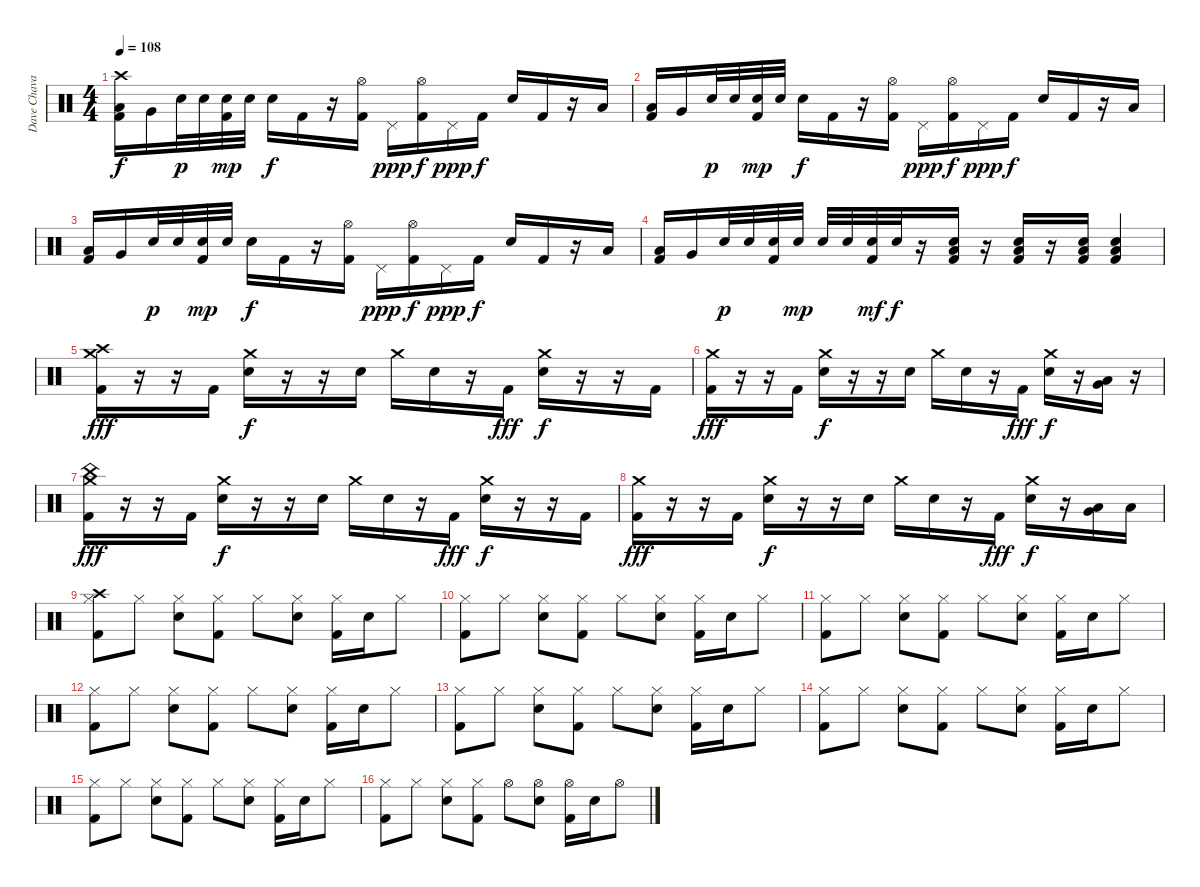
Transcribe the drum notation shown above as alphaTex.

\track ("Dave Chavarri [Drums]" "Dave Chava") {instrument percussion}
\staff {score}
\articulation defaults
\ts (4 4)
\tempo 108
\clef neutral
\ks c
("Crash high (hit)" "Low Tom (hit)" "Kick (hit) 2").16{dy f} "Very Low Tom (hit)".16 "Electric Snare (hit)".32{dy p} "Electric Snare (hit)".32 ("Electric Snare (hit)" "Kick (hit) 2").32{dy mp} "Electric Snare (hit)".32 "Electric Snare (hit)".16{dy f} "Kick (hit) 2".16 r.16 ("Hi-Hat (open)" "Kick (hit) 2").16 "Pedal Hi-Hat (hit)".16{dy ppp} ("Hi-Hat (open)" "Kick (hit) 2").16{dy f} "Pedal Hi-Hat (hit)".16{dy ppp} "Kick (hit) 2".16{dy f} "Electric Snare (hit)".16 "Kick (hit) 2".16 r.16 "Low Floor Tom (hit)".16 |
("Low Tom (hit)" "Kick (hit) 2").16 "Very Low Tom (hit)".16 "Electric Snare (hit)".32{dy p} "Electric Snare (hit)".32 ("Electric Snare (hit)" "Kick (hit) 2").32{dy mp} "Electric Snare (hit)".32 "Electric Snare (hit)".16{dy f} "Kick (hit) 2".16 r.16 ("Hi-Hat (open)" "Kick (hit) 2").16 "Pedal Hi-Hat (hit)".16{dy ppp} ("Hi-Hat (open)" "Kick (hit) 2").16{dy f} "Pedal Hi-Hat (hit)".16{dy ppp} "Kick (hit) 2".16{dy f} "Electric Snare (hit)".16 "Kick (hit) 2".16 r.16 "Low Floor Tom (hit)".16 |
("Low Tom (hit)" "Kick (hit) 2").16 "Very Low Tom (hit)".16 "Electric Snare (hit)".32{dy p} "Electric Snare (hit)".32 ("Electric Snare (hit)" "Kick (hit) 2").32{dy mp} "Electric Snare (hit)".32 "Electric Snare (hit)".16{dy f} "Kick (hit) 2".16 r.16 ("Hi-Hat (open)" "Kick (hit) 2").16 "Pedal Hi-Hat (hit)".16{dy ppp} ("Hi-Hat (open)" "Kick (hit) 2").16{dy f} "Pedal Hi-Hat (hit)".16{dy ppp} "Kick (hit) 2".16{dy f} "Electric Snare (hit)".16 "Kick (hit) 2".16 r.16 "Low Floor Tom (hit)".16 |
("Low Tom (hit)" "Kick (hit) 2").16 "Very Low Tom (hit)".16 "Electric Snare (hit)".32{dy p} "Electric Snare (hit)".32 ("Electric Snare (hit)" "Kick (hit) 2").32 "Electric Snare (hit)".32{dy mp} "Electric Snare (hit)".32 "Electric Snare (hit)".32 ("Electric Snare (hit)" "Kick (hit) 2").32{dy mf} "Electric Snare (hit)".32{dy f} r.16 ("Low Floor Tom (hit)" "Electric Snare (hit)" "Kick (hit) 2").16 r.16 ("Low Floor Tom (hit)" "Electric Snare (hit)" "Kick (hit) 2").16 r.16 ("Low Floor Tom (hit)" "Electric Snare (hit)" "Kick (hit) 2").16 ("Low Floor Tom (hit)" "Electric Snare (hit)" "Kick (hit) 2").4 |
("Crash medium (hit)" "Crash high (hit)" "Kick (hit) 2").16{dy fff} r.16 r.16 "Kick (hit) 2".16 ("Crash medium (hit)" "Electric Snare (hit)").16{dy f} r.16 r.16 "Electric Snare (hit)".16 "Crash medium (hit)".16 "Electric Snare (hit)".16 r.16 "Kick (hit) 2".16{dy fff} ("Crash medium (hit)" "Electric Snare (hit)").16{dy f} r.16 r.16 "Kick (hit) 2".16 |
("Crash medium (hit)" "Kick (hit) 2").16{dy fff} r.16 r.16 "Kick (hit) 2".16 ("Crash medium (hit)" "Electric Snare (hit)").16{dy f} r.16 r.16 "Electric Snare (hit)".16 "Crash medium (hit)".16 "Electric Snare (hit)".16 r.16 "Kick (hit) 2".16{dy fff} ("Crash medium (hit)" "Electric Snare (hit)").16{dy f} r.16 ("Low Tom (hit)" "Very Low Tom (hit)").16 r.16 |
("Crash medium (hit)" "China (hit)" "Kick (hit) 2").16{dy fff} r.16 r.16 "Kick (hit) 2".16 ("Crash medium (hit)" "Electric Snare (hit)").16{dy f} r.16 r.16 "Electric Snare (hit)".16 "Crash medium (hit)".16 "Electric Snare (hit)".16 r.16 "Kick (hit) 2".16{dy fff} ("Crash medium (hit)" "Electric Snare (hit)").16{dy f} r.16 r.16 "Kick (hit) 2".16 |
("Crash medium (hit)" "Kick (hit) 2").16{dy fff} r.16 r.16 "Kick (hit) 2".16 ("Crash medium (hit)" "Electric Snare (hit)").16{dy f} r.16 r.16 "Electric Snare (hit)".16 "Crash medium (hit)".16 "Electric Snare (hit)".16 r.16 "Kick (hit) 2".16{dy fff} ("Crash medium (hit)" "Electric Snare (hit)").16{dy f} r.16 ("Low Tom (hit)" "Very Low Tom (hit)").16 "Low Floor Tom (hit)".16 |
("Crash high (hit)" "Hi-Hat (closed)" "Kick (hit) 2").8 "Hi-Hat (closed)".8 ("Hi-Hat (closed)" "Electric Snare (hit)").8 ("Hi-Hat (closed)" "Kick (hit) 2").8 "Hi-Hat (closed)".8 ("Hi-Hat (closed)" "Electric Snare (hit)").8 ("Hi-Hat (closed)" "Kick (hit) 2").16 "Electric Snare (hit)".16 "Hi-Hat (closed)".8 |
("Hi-Hat (closed)" "Kick (hit) 2").8 "Hi-Hat (closed)".8 ("Hi-Hat (closed)" "Electric Snare (hit)").8 ("Hi-Hat (closed)" "Kick (hit) 2").8 "Hi-Hat (closed)".8 ("Hi-Hat (closed)" "Electric Snare (hit)").8 ("Hi-Hat (closed)" "Kick (hit) 2").16 "Electric Snare (hit)".16 "Hi-Hat (closed)".8 |
("Hi-Hat (closed)" "Kick (hit) 2").8 "Hi-Hat (closed)".8 ("Hi-Hat (closed)" "Electric Snare (hit)").8 ("Hi-Hat (closed)" "Kick (hit) 2").8 "Hi-Hat (closed)".8 ("Hi-Hat (closed)" "Electric Snare (hit)").8 ("Hi-Hat (closed)" "Kick (hit) 2").16 "Electric Snare (hit)".16 "Hi-Hat (closed)".8 |
("Hi-Hat (closed)" "Kick (hit) 2").8 "Hi-Hat (closed)".8 ("Hi-Hat (closed)" "Electric Snare (hit)").8 ("Hi-Hat (closed)" "Kick (hit) 2").8 "Hi-Hat (closed)".8 ("Hi-Hat (closed)" "Electric Snare (hit)").8 ("Hi-Hat (closed)" "Kick (hit) 2").16 "Electric Snare (hit)".16 "Hi-Hat (closed)".8 |
("Hi-Hat (closed)" "Kick (hit) 2").8 "Hi-Hat (closed)".8 ("Hi-Hat (closed)" "Electric Snare (hit)").8 ("Hi-Hat (closed)" "Kick (hit) 2").8 "Hi-Hat (closed)".8 ("Hi-Hat (closed)" "Electric Snare (hit)").8 ("Hi-Hat (closed)" "Kick (hit) 2").16 "Electric Snare (hit)".16 "Hi-Hat (closed)".8 |
("Hi-Hat (closed)" "Kick (hit) 2").8 "Hi-Hat (closed)".8 ("Hi-Hat (closed)" "Electric Snare (hit)").8 ("Hi-Hat (closed)" "Kick (hit) 2").8 "Hi-Hat (closed)".8 ("Hi-Hat (closed)" "Electric Snare (hit)").8 ("Hi-Hat (closed)" "Kick (hit) 2").16 "Electric Snare (hit)".16 "Hi-Hat (closed)".8 |
("Hi-Hat (closed)" "Kick (hit) 2").8 "Hi-Hat (closed)".8 ("Hi-Hat (closed)" "Electric Snare (hit)").8 ("Hi-Hat (closed)" "Kick (hit) 2").8 "Hi-Hat (closed)".8 ("Hi-Hat (closed)" "Electric Snare (hit)").8 ("Hi-Hat (closed)" "Kick (hit) 2").16 "Electric Snare (hit)".16 "Hi-Hat (closed)".8 |
("Hi-Hat (closed)" "Kick (hit) 2").8 "Hi-Hat (closed)".8 ("Hi-Hat (closed)" "Electric Snare (hit)").8 ("Hi-Hat (closed)" "Kick (hit) 2").8 "Hi-Hat (open)".8 ("Hi-Hat (open)" "Electric Snare (hit)").8 ("Hi-Hat (open)" "Kick (hit) 2").16 "Electric Snare (hit)".16 "Hi-Hat (open)".8
